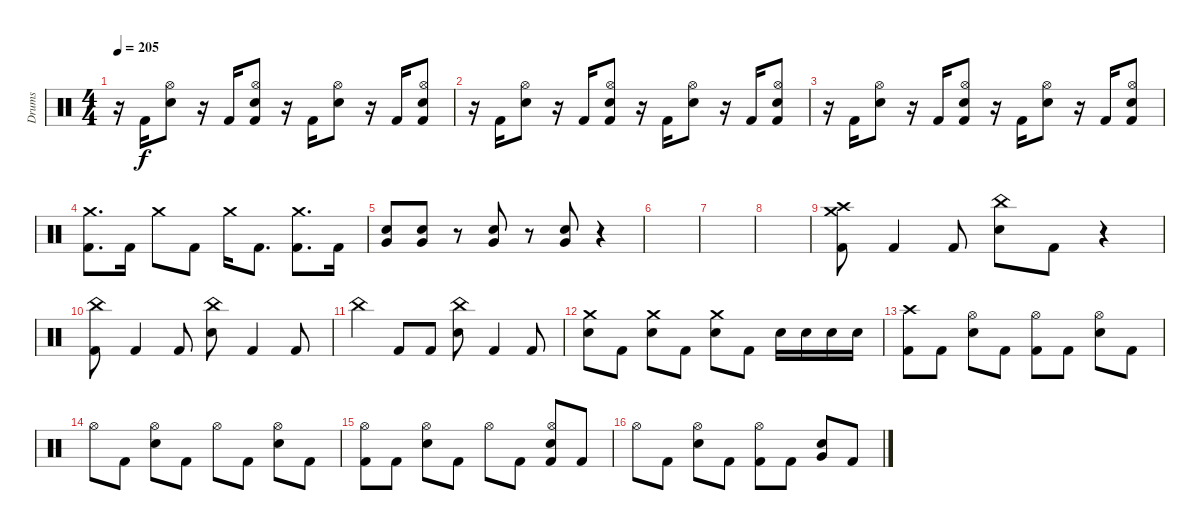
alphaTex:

\track ("Drums" "Drums") {instrument percussion}
\staff {score}
\articulation defaults
\ts (4 4)
\tempo 205
\clef neutral
\ks c
r.16{dy f} "Kick (hit) 2".16 ("Hi-Hat (open)" "Electric Snare (hit)").8 r.16 "Kick (hit) 2".16 ("Hi-Hat (open)" "Electric Snare (hit)" "Kick (hit) 2").8 r.16 "Kick (hit) 2".16 ("Hi-Hat (open)" "Electric Snare (hit)").8 r.16 "Kick (hit) 2".16 ("Hi-Hat (open)" "Electric Snare (hit)" "Kick (hit) 2").8 |
r.16 "Kick (hit) 2".16 ("Hi-Hat (open)" "Electric Snare (hit)").8 r.16 "Kick (hit) 2".16 ("Hi-Hat (open)" "Electric Snare (hit)" "Kick (hit) 2").8 r.16 "Kick (hit) 2".16 ("Hi-Hat (open)" "Electric Snare (hit)").8 r.16 "Kick (hit) 2".16 ("Hi-Hat (open)" "Electric Snare (hit)" "Kick (hit) 2").8 |
r.16 "Kick (hit) 2".16 ("Hi-Hat (open)" "Electric Snare (hit)").8 r.16 "Kick (hit) 2".16 ("Hi-Hat (open)" "Electric Snare (hit)" "Kick (hit) 2").8 r.16 "Kick (hit) 2".16 ("Hi-Hat (open)" "Electric Snare (hit)").8 r.16 "Kick (hit) 2".16 ("Hi-Hat (open)" "Electric Snare (hit)" "Kick (hit) 2").8 |
("Crash medium (hit)" "Kick (hit) 2").8{d} "Kick (hit) 2".16 "Crash medium (hit)".8 "Kick (hit) 2".8 "Crash medium (hit)".16 "Kick (hit) 2".8{d} ("Crash medium (hit)" "Kick (hit) 2").8{d} "Kick (hit) 2".16 |
("Electric Snare (hit)" "Very Low Tom (hit)").8 ("Electric Snare (hit)" "Very Low Tom (hit)").8 r.8 ("Electric Snare (hit)" "Very Low Tom (hit)").8 r.8 ("Electric Snare (hit)" "Very Low Tom (hit)").8 r.4 |
|
|
|
("Crash medium (hit)" "Crash high (hit)" "Kick (hit) 2").8 "Kick (hit) 2".4 "Kick (hit) 2".8 ("China (hit)" "Electric Snare (hit)").8 "Kick (hit) 2".8 r.4 |
("China (hit)" "Kick (hit) 2").8 "Kick (hit) 2".4 "Kick (hit) 2".8 ("China (hit)" "Electric Snare (hit)").8 "Kick (hit) 2".4 "Kick (hit) 2".8 |
"China (hit)".4 "Kick (hit) 2".8 "Kick (hit) 2".8 ("China (hit)" "Electric Snare (hit)").8 "Kick (hit) 2".4 "Kick (hit) 2".8 |
("Crash medium (hit)" "Electric Snare (hit)").8 "Kick (hit) 2".8 ("Crash medium (hit)" "Electric Snare (hit)").8 "Kick (hit) 2".8 ("Crash medium (hit)" "Electric Snare (hit)").8 "Kick (hit) 2".8 "Electric Snare (hit)".16 "Electric Snare (hit)".16 "Electric Snare (hit)".16 "Electric Snare (hit)".16 |
("Crash high (hit)" "Kick (hit) 2").8 "Kick (hit) 2".8 ("Hi-Hat (open)" "Electric Snare (hit)").8 "Kick (hit) 2".8 ("Hi-Hat (open)" "Kick (hit) 2").8 "Kick (hit) 2".8 ("Hi-Hat (open)" "Electric Snare (hit)").8 "Kick (hit) 2".8 |
"Hi-Hat (open)".8 "Kick (hit) 2".8 ("Hi-Hat (open)" "Electric Snare (hit)").8 "Kick (hit) 2".8 "Hi-Hat (open)".8 "Kick (hit) 2".8 ("Hi-Hat (open)" "Electric Snare (hit)").8 "Kick (hit) 2".8 |
("Hi-Hat (open)" "Kick (hit) 2").8 "Kick (hit) 2".8 ("Hi-Hat (open)" "Electric Snare (hit)").8 "Kick (hit) 2".8 "Hi-Hat (open)".8 "Kick (hit) 2".8 ("Hi-Hat (open)" "Electric Snare (hit)" "Kick (hit) 2").8 "Kick (hit) 2".8 |
"Hi-Hat (open)".8 "Kick (hit) 2".8 ("Hi-Hat (open)" "Electric Snare (hit)").8 "Kick (hit) 2".8 ("Hi-Hat (open)" "Kick (hit) 2").8 "Kick (hit) 2".8 ("Electric Snare (hit)" "Very Low Tom (hit)").8 "Kick (hit) 2".8
